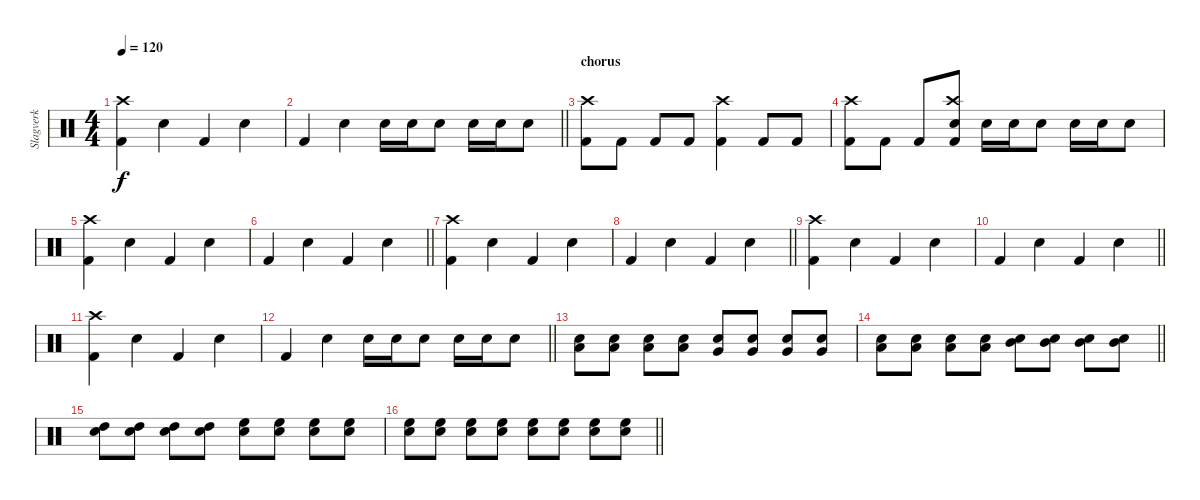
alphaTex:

\track ("Slagverk" "Slagverk") {instrument percussion}
\staff {score}
\articulation defaults
\ts (4 4)
\tempo 120
\clef neutral
\ks c
("Kick (hit) 2" "Crash high (hit)").4{dy f} "Snare (hit) 2".4 "Kick (hit) 2".4 "Snare (hit) 2".4 |
\barLineRight lightlight "Kick (hit) 2".4 "Snare (hit) 2".4 "Snare (hit) 2".16 "Snare (hit) 2".16 "Snare (hit) 2".8 "Snare (hit) 2".16 "Snare (hit) 2".16 "Snare (hit) 2".8
|
\section ("" "chorus")
("Kick (hit) 2" "Crash high (hit)").8 "Kick (hit) 2".8 "Kick (hit) 2".8 "Kick (hit) 2".8 ("Kick (hit) 2" "Crash high (hit)").4 "Kick (hit) 2".8 "Kick (hit) 2".8 |
("Kick (hit) 2" "Crash high (hit)").8 "Kick (hit) 2".8 "Kick (hit) 2".8 ("Snare (hit) 2" "Crash high (hit)" "Kick (hit) 2").8 "Snare (hit) 2".16 "Snare (hit) 2".16 "Snare (hit) 2".8 "Snare (hit) 2".16 "Snare (hit) 2".16 "Snare (hit) 2".8 |
("Kick (hit) 2" "Crash high (hit)").4 "Snare (hit) 2".4 "Kick (hit) 2".4 "Snare (hit) 2".4 |
\barLineRight lightlight "Kick (hit) 2".4 "Snare (hit) 2".4 "Kick (hit) 2".4 "Snare (hit) 2".4
|
("Kick (hit) 2" "Crash high (hit)").4 "Snare (hit) 2".4 "Kick (hit) 2".4 "Snare (hit) 2".4 |
\barLineRight lightlight "Kick (hit) 2".4 "Snare (hit) 2".4 "Kick (hit) 2".4 "Snare (hit) 2".4
|
("Kick (hit) 2" "Crash high (hit)").4 "Snare (hit) 2".4 "Kick (hit) 2".4 "Snare (hit) 2".4 |
\barLineRight lightlight "Kick (hit) 2".4 "Snare (hit) 2".4 "Kick (hit) 2".4 "Snare (hit) 2".4
|
("Kick (hit) 2" "Crash high (hit)").4 "Snare (hit) 2".4 "Kick (hit) 2".4 "Snare (hit) 2".4 |
\barLineRight lightlight "Kick (hit) 2".4 "Snare (hit) 2".4 "Snare (hit) 2".16 "Snare (hit) 2".16 "Snare (hit) 2".8 "Snare (hit) 2".16 "Snare (hit) 2".16 "Snare (hit) 2".8
|
("Snare (hit) 2" "Low Floor Tom (hit)").8 ("Snare (hit) 2" "Low Floor Tom (hit)").8 ("Snare (hit) 2" "Low Floor Tom (hit)").8 ("Snare (hit) 2" "Low Floor Tom (hit)").8 ("Snare (hit) 2" "Very Low Tom (hit)").8 ("Snare (hit) 2" "Very Low Tom (hit)").8 ("Snare (hit) 2" "Very Low Tom (hit)").8 ("Snare (hit) 2" "Very Low Tom (hit)").8 |
\barLineRight lightlight
("Snare (hit) 2" "Low Tom (hit)").8 ("Snare (hit) 2" "Low Tom (hit)").8 ("Snare (hit) 2" "Low Tom (hit)").8 ("Snare (hit) 2" "Low Tom (hit)").8 ("Snare (hit) 2" "Mid Tom (hit)").8 ("Snare (hit) 2" "Mid Tom (hit)").8 ("Snare (hit) 2" "Mid Tom (hit)").8 ("Snare (hit) 2" "Mid Tom (hit)").8 |
("Snare (hit) 2" "High Tom (hit)").8 ("Snare (hit) 2" "High Tom (hit)").8 ("Snare (hit) 2" "High Tom (hit)").8 ("Snare (hit) 2" "High Tom (hit)").8 ("Snare (hit) 2" "High Floor Tom (hit)").8 ("Snare (hit) 2" "High Floor Tom (hit)").8 ("Snare (hit) 2" "High Floor Tom (hit)").8 ("Snare (hit) 2" "High Floor Tom (hit)").8 |
\barLineRight lightlight
("Snare (hit) 2" "High Floor Tom (hit)").8 ("Snare (hit) 2" "High Floor Tom (hit)").8 ("Snare (hit) 2" "High Floor Tom (hit)").8 ("Snare (hit) 2" "High Floor Tom (hit)").8 ("Snare (hit) 2" "High Floor Tom (hit)").8 ("Snare (hit) 2" "High Floor Tom (hit)").8 ("Snare (hit) 2" "High Floor Tom (hit)").8 ("Snare (hit) 2" "High Floor Tom (hit)").8
